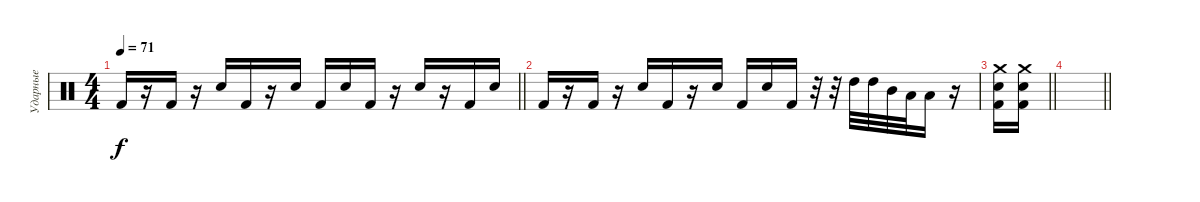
\track ("Ударные" "Ударные") {instrument percussion}
\staff
\articulation defaults
\ts (4 4)
\tempo 71
\clef neutral
\barLineRight lightlight
\ks c "Kick (hit) 2".16{dy f}
r.16 "Kick (hit) 2".16 r.16 "Snare (hit) 2".16 "Kick (hit) 2".16 r.16 "Snare (hit) 2".16 "Kick (hit) 2".16 "Snare (hit) 2".16 "Kick (hit) 2".16 r.16 "Snare (hit) 2".16 r.16 "Kick (hit) 2".16 "Snare (hit) 2".16 |
"Kick (hit) 2".16 r.16 "Kick (hit) 2".16 r.16 "Snare (hit) 2".16 "Kick (hit) 2".16 r.16 "Snare (hit) 2".16 "Kick (hit) 2".16 "Snare (hit) 2".16 "Kick (hit) 2".16 r.32 r.32 "High Tom (hit)".32 "High Tom (hit)".32 "Mid Tom (hit)".32 "Low Tom (hit)".32 "Low Tom (hit)".16 r.16 |
\barLineRight lightlight
("Kick (hit) 2" "Snare (hit) 2" "Crash medium (hit)").16 ("Kick (hit) 2" "Snare (hit) 2" "Crash medium (hit)").16 |
\barLineRight lightlight
